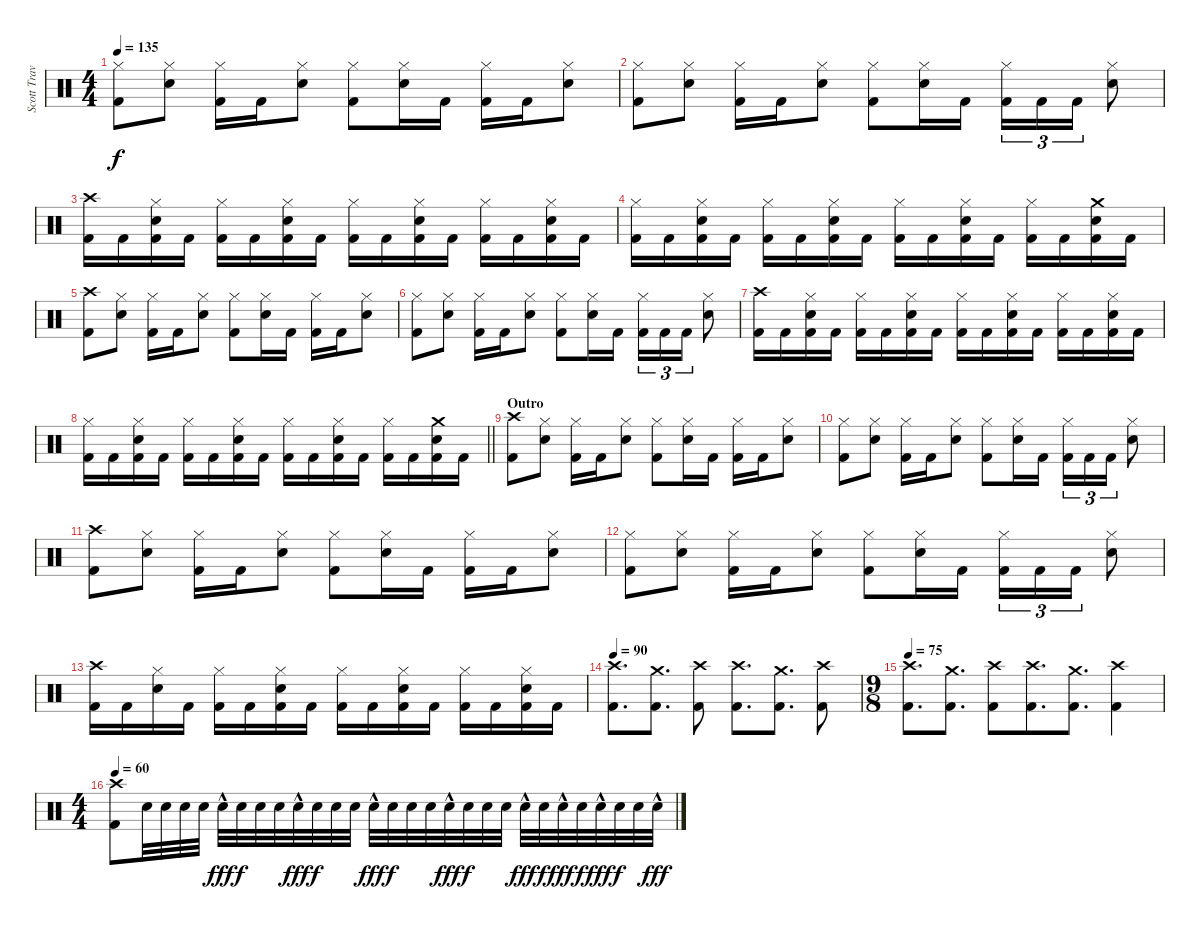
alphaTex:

\track ("Scott Travis" "Scott Trav") {instrument percussion}
\staff {score}
\articulation defaults
\ts (4 4)
\tempo 135
\clef neutral
\ks c
("Hi-Hat (closed)" "Kick (hit) 2").8{dy f} ("Hi-Hat (closed)" "Snare (hit) 2").8 ("Hi-Hat (closed)" "Kick (hit) 2").16 "Kick (hit) 2".16 ("Hi-Hat (closed)" "Snare (hit) 2").8 ("Hi-Hat (closed)" "Kick (hit) 2").8 ("Hi-Hat (closed)" "Snare (hit) 2").16 "Kick (hit) 2".16 ("Hi-Hat (closed)" "Kick (hit) 2").16 "Kick (hit) 2".16 ("Hi-Hat (closed)" "Snare (hit) 2").8 |
("Hi-Hat (closed)" "Kick (hit) 2").8 ("Hi-Hat (closed)" "Snare (hit) 2").8 ("Hi-Hat (closed)" "Kick (hit) 2").16 "Kick (hit) 2".16 ("Hi-Hat (closed)" "Snare (hit) 2").8 ("Hi-Hat (closed)" "Kick (hit) 2").8 ("Hi-Hat (closed)" "Snare (hit) 2").16 "Kick (hit) 2".16 ("Hi-Hat (closed)" "Kick (hit) 2").16{tu (3 2)} "Kick (hit) 2".16{tu (3 2)} "Kick (hit) 2".16{tu (3 2)} ("Hi-Hat (closed)" "Snare (hit) 2").8 |
("Crash high (hit)" "Kick (hit) 2").16 "Kick (hit) 2".16 ("Hi-Hat (closed)" "Snare (hit) 2" "Kick (hit) 2").16 "Kick (hit) 2".16 ("Hi-Hat (closed)" "Kick (hit) 2").16 "Kick (hit) 2".16 ("Hi-Hat (closed)" "Snare (hit) 2" "Kick (hit) 2").16 "Kick (hit) 2".16 ("Hi-Hat (closed)" "Kick (hit) 2").16 "Kick (hit) 2".16 ("Hi-Hat (closed)" "Snare (hit) 2" "Kick (hit) 2").16 "Kick (hit) 2".16 ("Hi-Hat (closed)" "Kick (hit) 2").16 "Kick (hit) 2".16 ("Hi-Hat (closed)" "Snare (hit) 2" "Kick (hit) 2").16 "Kick (hit) 2".16 |
("Hi-Hat (closed)" "Kick (hit) 2").16 "Kick (hit) 2".16 ("Hi-Hat (closed)" "Snare (hit) 2" "Kick (hit) 2").16 "Kick (hit) 2".16 ("Hi-Hat (closed)" "Kick (hit) 2").16 "Kick (hit) 2".16 ("Hi-Hat (closed)" "Snare (hit) 2" "Kick (hit) 2").16 "Kick (hit) 2".16 ("Hi-Hat (closed)" "Kick (hit) 2").16 "Kick (hit) 2".16 ("Hi-Hat (closed)" "Snare (hit) 2" "Kick (hit) 2").16 "Kick (hit) 2".16 ("Hi-Hat (closed)" "Kick (hit) 2").16 "Kick (hit) 2".16 ("Crash medium (hit)" "Snare (hit) 2" "Kick (hit) 2").16 "Kick (hit) 2".16 |
("Crash high (hit)" "Kick (hit) 2").8 ("Hi-Hat (closed)" "Snare (hit) 2").8 ("Hi-Hat (closed)" "Kick (hit) 2").16 "Kick (hit) 2".16 ("Hi-Hat (closed)" "Snare (hit) 2").8 ("Hi-Hat (closed)" "Kick (hit) 2").8 ("Hi-Hat (closed)" "Snare (hit) 2").16 "Kick (hit) 2".16 ("Hi-Hat (closed)" "Kick (hit) 2").16 "Kick (hit) 2".16 ("Hi-Hat (closed)" "Snare (hit) 2").8 |
("Hi-Hat (closed)" "Kick (hit) 2").8 ("Hi-Hat (closed)" "Snare (hit) 2").8 ("Hi-Hat (closed)" "Kick (hit) 2").16 "Kick (hit) 2".16 ("Hi-Hat (closed)" "Snare (hit) 2").8 ("Hi-Hat (closed)" "Kick (hit) 2").8 ("Hi-Hat (closed)" "Snare (hit) 2").16 "Kick (hit) 2".16 ("Hi-Hat (closed)" "Kick (hit) 2").16{tu (3 2)} "Kick (hit) 2".16{tu (3 2)} "Kick (hit) 2".16{tu (3 2)} ("Hi-Hat (closed)" "Snare (hit) 2").8 |
("Crash high (hit)" "Kick (hit) 2").16 "Kick (hit) 2".16 ("Hi-Hat (closed)" "Snare (hit) 2" "Kick (hit) 2").16 "Kick (hit) 2".16 ("Hi-Hat (closed)" "Kick (hit) 2").16 "Kick (hit) 2".16 ("Hi-Hat (closed)" "Snare (hit) 2" "Kick (hit) 2").16 "Kick (hit) 2".16 ("Hi-Hat (closed)" "Kick (hit) 2").16 "Kick (hit) 2".16 ("Hi-Hat (closed)" "Snare (hit) 2" "Kick (hit) 2").16 "Kick (hit) 2".16 ("Hi-Hat (closed)" "Kick (hit) 2").16 "Kick (hit) 2".16 ("Hi-Hat (closed)" "Snare (hit) 2" "Kick (hit) 2").16 "Kick (hit) 2".16 |
\barLineRight lightlight
("Hi-Hat (closed)" "Kick (hit) 2").16 "Kick (hit) 2".16 ("Hi-Hat (closed)" "Snare (hit) 2" "Kick (hit) 2").16 "Kick (hit) 2".16 ("Hi-Hat (closed)" "Kick (hit) 2").16 "Kick (hit) 2".16 ("Hi-Hat (closed)" "Snare (hit) 2" "Kick (hit) 2").16 "Kick (hit) 2".16 ("Hi-Hat (closed)" "Kick (hit) 2").16 "Kick (hit) 2".16 ("Hi-Hat (closed)" "Snare (hit) 2" "Kick (hit) 2").16 "Kick (hit) 2".16 ("Hi-Hat (closed)" "Kick (hit) 2").16 "Kick (hit) 2".16 ("Crash medium (hit)" "Snare (hit) 2" "Kick (hit) 2").16 "Kick (hit) 2".16 |
\section ("" "Outro")
("Crash high (hit)" "Kick (hit) 2").8 ("Hi-Hat (closed)" "Snare (hit) 2").8 ("Hi-Hat (closed)" "Kick (hit) 2").16 "Kick (hit) 2".16 ("Hi-Hat (closed)" "Snare (hit) 2").8 ("Hi-Hat (closed)" "Kick (hit) 2").8 ("Hi-Hat (closed)" "Snare (hit) 2").16 "Kick (hit) 2".16 ("Hi-Hat (closed)" "Kick (hit) 2").16 "Kick (hit) 2".16 ("Hi-Hat (closed)" "Snare (hit) 2").8 |
("Hi-Hat (closed)" "Kick (hit) 2").8 ("Hi-Hat (closed)" "Snare (hit) 2").8 ("Hi-Hat (closed)" "Kick (hit) 2").16 "Kick (hit) 2".16 ("Hi-Hat (closed)" "Snare (hit) 2").8 ("Hi-Hat (closed)" "Kick (hit) 2").8 ("Hi-Hat (closed)" "Snare (hit) 2").16 "Kick (hit) 2".16 ("Hi-Hat (closed)" "Kick (hit) 2").16{tu (3 2)} "Kick (hit) 2".16{tu (3 2)} "Kick (hit) 2".16{tu (3 2)} ("Hi-Hat (closed)" "Snare (hit) 2").8 |
("Crash high (hit)" "Kick (hit) 2").8 ("Hi-Hat (closed)" "Snare (hit) 2").8 ("Hi-Hat (closed)" "Kick (hit) 2").16 "Kick (hit) 2".16 ("Hi-Hat (closed)" "Snare (hit) 2").8 ("Hi-Hat (closed)" "Kick (hit) 2").8 ("Hi-Hat (closed)" "Snare (hit) 2").16 "Kick (hit) 2".16 ("Hi-Hat (closed)" "Kick (hit) 2").16 "Kick (hit) 2".16 ("Hi-Hat (closed)" "Snare (hit) 2").8 |
("Hi-Hat (closed)" "Kick (hit) 2").8 ("Hi-Hat (closed)" "Snare (hit) 2").8 ("Hi-Hat (closed)" "Kick (hit) 2").16 "Kick (hit) 2".16 ("Hi-Hat (closed)" "Snare (hit) 2").8 ("Hi-Hat (closed)" "Kick (hit) 2").8 ("Hi-Hat (closed)" "Snare (hit) 2").16 "Kick (hit) 2".16 ("Hi-Hat (closed)" "Kick (hit) 2").16{tu (3 2)} "Kick (hit) 2".16{tu (3 2)} "Kick (hit) 2".16{tu (3 2)} ("Hi-Hat (closed)" "Snare (hit) 2").8 |
("Crash high (hit)" "Kick (hit) 2").16 "Kick (hit) 2".16 ("Hi-Hat (closed)" "Snare (hit) 2").16 "Kick (hit) 2".16 ("Hi-Hat (closed)" "Kick (hit) 2").16 "Kick (hit) 2".16 ("Hi-Hat (closed)" "Snare (hit) 2" "Kick (hit) 2").16 "Kick (hit) 2".16 ("Hi-Hat (closed)" "Kick (hit) 2").16 "Kick (hit) 2".16 ("Hi-Hat (closed)" "Snare (hit) 2" "Kick (hit) 2").16 "Kick (hit) 2".16 ("Hi-Hat (closed)" "Kick (hit) 2").16 "Kick (hit) 2".16 ("Hi-Hat (closed)" "Snare (hit) 2" "Kick (hit) 2").16 "Kick (hit) 2".16 |
\tempo 90
("Crash high (hit)" "Kick (hit) 2").8{d} ("Crash medium (hit)" "Kick (hit) 2").8{d} ("Crash high (hit)" "Kick (hit) 2").8 ("Crash high (hit)" "Kick (hit) 2").8{d} ("Crash medium (hit)" "Kick (hit) 2").8{d} ("Crash high (hit)" "Kick (hit) 2").8 |
\ts (9 8)
\tempo 75
("Crash high (hit)" "Kick (hit) 2").8{d} ("Crash medium (hit)" "Kick (hit) 2").8{d} ("Crash high (hit)" "Kick (hit) 2").8 ("Crash high (hit)" "Kick (hit) 2").8{d} ("Crash medium (hit)" "Kick (hit) 2").8{d} ("Crash high (hit)" "Kick (hit) 2").4 |
\ts (4 4)
\tempo 60
("Crash high (hit)" "Kick (hit) 2").8 "Snare (hit) 2".32 "Snare (hit) 2".32 "Snare (hit) 2".32 "Snare (hit) 2".32 "Snare (hit) 2"{hac}.32{dy fff} "Snare (hit) 2".32{dy f} "Snare (hit) 2".32 "Snare (hit) 2".32 "Snare (hit) 2"{hac}.32{dy fff} "Snare (hit) 2".32{dy f} "Snare (hit) 2".32 "Snare (hit) 2".32 "Snare (hit) 2"{hac}.32{dy fff} "Snare (hit) 2".32{dy f} "Snare (hit) 2".32 "Snare (hit) 2".32 "Snare (hit) 2"{hac}.32{dy fff} "Snare (hit) 2".32{dy f} "Snare (hit) 2".32 "Snare (hit) 2".32 "Snare (hit) 2"{hac}.32{dy fff} "Snare (hit) 2".32{dy f} "Snare (hit) 2"{hac}.32{dy fff} "Snare (hit) 2".32{dy f} "Snare (hit) 2"{hac}.32{dy fff} "Snare (hit) 2".32{dy f} "Snare (hit) 2".32 "Snare (hit) 2"{hac}.32{dy fff}
